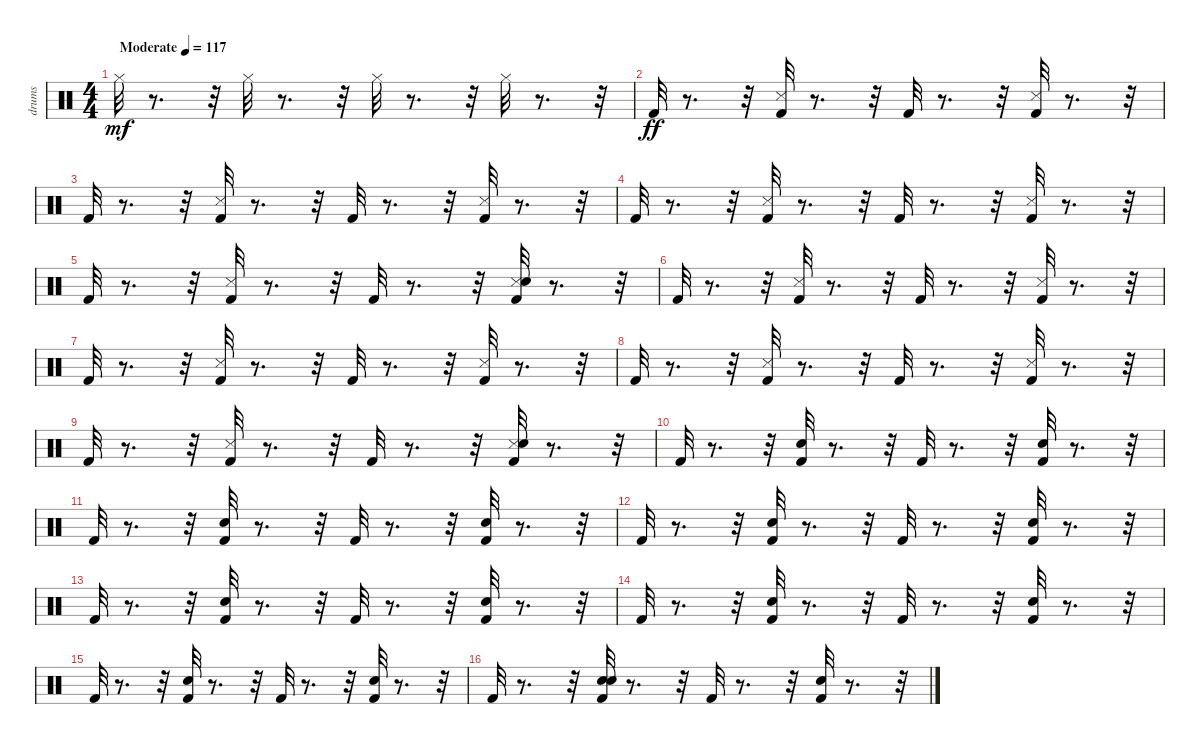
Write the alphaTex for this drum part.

\track ("drums   " "drums   ") {instrument percussion}
\staff {score}
\articulation defaults
\ts (4 4)
\tempo (117 "Moderate")
\clef neutral
\ks c "Hi-Hat (closed)".32{dy mf}
r.8{d} r.32 "Hi-Hat (closed)".32 r.8{d} r.32 "Hi-Hat (closed)".32 r.8{d} r.32 "Hi-Hat (closed)".32 r.8{d} r.32 |
"Kick (hit) 2".32{dy ff} r.8{d} r.32 ("Kick (hit) 2" "Snare (side stick) 3").32 r.8{d} r.32 "Kick (hit) 2".32 r.8{d} r.32 ("Kick (hit) 2" "Snare (side stick) 3").32 r.8{d} r.32 |
"Kick (hit) 2".32 r.8{d} r.32 ("Kick (hit) 2" "Snare (side stick) 3").32 r.8{d} r.32 "Kick (hit) 2".32 r.8{d} r.32 ("Kick (hit) 2" "Snare (side stick) 3").32 r.8{d} r.32 |
"Kick (hit) 2".32 r.8{d} r.32 ("Kick (hit) 2" "Snare (side stick) 3").32 r.8{d} r.32 "Kick (hit) 2".32 r.8{d} r.32 ("Kick (hit) 2" "Snare (side stick) 3").32 r.8{d} r.32 |
"Kick (hit) 2".32 r.8{d} r.32 ("Kick (hit) 2" "Snare (side stick) 3").32 r.8{d} r.32 "Kick (hit) 2".32 r.8{d} r.32 ("Snare (side stick) 3" "Hand Clap (hit)" "Kick (hit) 2").32 r.8{d} r.32 |
"Kick (hit) 2".32 r.8{d} r.32 ("Kick (hit) 2" "Snare (side stick) 3").32 r.8{d} r.32 "Kick (hit) 2".32 r.8{d} r.32 ("Kick (hit) 2" "Snare (side stick) 3").32 r.8{d} r.32 |
"Kick (hit) 2".32 r.8{d} r.32 ("Kick (hit) 2" "Snare (side stick) 3").32 r.8{d} r.32 "Kick (hit) 2".32 r.8{d} r.32 ("Kick (hit) 2" "Snare (side stick) 3").32 r.8{d} r.32 |
"Kick (hit) 2".32 r.8{d} r.32 ("Snare (side stick) 3" "Kick (hit) 2").32 r.8{d} r.32 "Kick (hit) 2".32 r.8{d} r.32 ("Kick (hit) 2" "Snare (side stick) 3").32 r.8{d} r.32 |
"Kick (hit) 2".32 r.8{d} r.32 ("Kick (hit) 2" "Snare (side stick) 3").32 r.8{d} r.32 "Kick (hit) 2".32 r.8{d} r.32 ("Snare (side stick) 3" "Hand Clap (hit)" "Kick (hit) 2").32 r.8{d} r.32 |
"Kick (hit) 2".32 r.8{d} r.32 ("Snare (hit) 2" "Kick (hit) 2").32 r.8{d} r.32 "Kick (hit) 2".32 r.8{d} r.32 ("Kick (hit) 2" "Snare (hit) 2").32 r.8{d} r.32 |
"Kick (hit) 2".32 r.8{d} r.32 ("Snare (hit) 2" "Kick (hit) 2").32 r.8{d} r.32 "Kick (hit) 2".32 r.8{d} r.32 ("Kick (hit) 2" "Snare (hit) 2").32 r.8{d} r.32 |
"Kick (hit) 2".32 r.8{d} r.32 ("Kick (hit) 2" "Snare (hit) 2").32 r.8{d} r.32 "Kick (hit) 2".32 r.8{d} r.32 ("Snare (hit) 2" "Kick (hit) 2").32 r.8{d} r.32 |
"Kick (hit) 2".32 r.8{d} r.32 ("Kick (hit) 2" "Snare (hit) 2").32 r.8{d} r.32 "Kick (hit) 2".32 r.8{d} r.32 ("Kick (hit) 2" "Snare (hit) 2").32 r.8{d} r.32 |
"Kick (hit) 2".32 r.8{d} r.32 ("Snare (hit) 2" "Kick (hit) 2").32 r.8{d} r.32 "Kick (hit) 2".32 r.8{d} r.32 ("Snare (hit) 2" "Kick (hit) 2").32 r.8{d} r.32 |
"Kick (hit) 2".32 r.8{d} r.32 ("Kick (hit) 2" "Snare (hit) 2").32 r.8{d} r.32 "Kick (hit) 2".32 r.8{d} r.32 ("Snare (hit) 2" "Kick (hit) 2").32 r.8{d} r.32 |
"Kick (hit) 2".32 r.8{d} r.32 ("Kick (hit) 2" "Snare (hit) 2" "Snare (hit) 2").32 r.8{d} r.32 "Kick (hit) 2".32 r.8{d} r.32 ("Kick (hit) 2" "Snare (hit) 2").32 r.8{d} r.32
